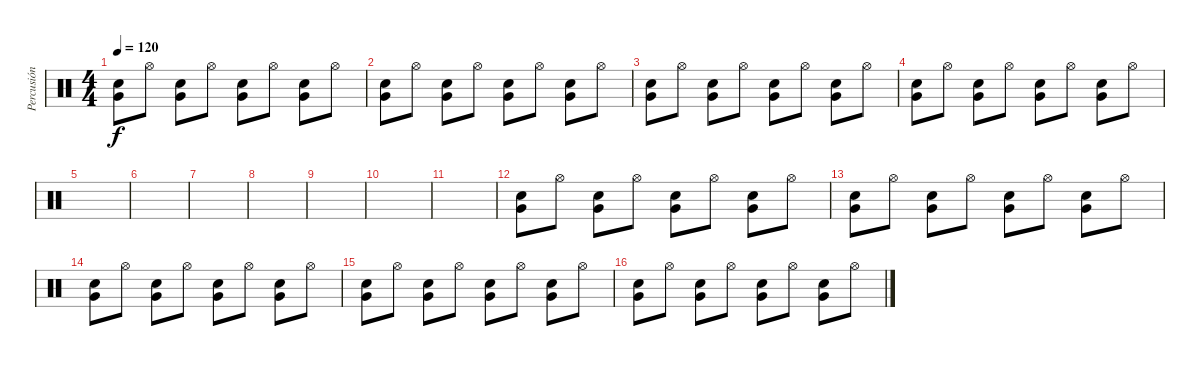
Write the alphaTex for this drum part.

\track ("Percusión" "Percusión") {instrument percussion}
\staff {score}
\articulation defaults
\ts (4 4)
\tempo 120
\clef neutral
\ks c
("Electric Snare (hit)" "Very Low Tom (hit)").8{dy f} "Hi-Hat (open)".8 ("Electric Snare (hit)" "Very Low Tom (hit)").8 "Hi-Hat (open)".8 ("Electric Snare (hit)" "Very Low Tom (hit)").8 "Hi-Hat (open)".8 ("Electric Snare (hit)" "Very Low Tom (hit)").8 "Hi-Hat (open)".8 |
("Electric Snare (hit)" "Very Low Tom (hit)").8 "Hi-Hat (open)".8 ("Electric Snare (hit)" "Very Low Tom (hit)").8 "Hi-Hat (open)".8 ("Electric Snare (hit)" "Very Low Tom (hit)").8 "Hi-Hat (open)".8 ("Electric Snare (hit)" "Very Low Tom (hit)").8 "Hi-Hat (open)".8 |
("Electric Snare (hit)" "Very Low Tom (hit)").8 "Hi-Hat (open)".8 ("Electric Snare (hit)" "Very Low Tom (hit)").8 "Hi-Hat (open)".8 ("Electric Snare (hit)" "Very Low Tom (hit)").8 "Hi-Hat (open)".8 ("Electric Snare (hit)" "Very Low Tom (hit)").8 "Hi-Hat (open)".8 |
("Electric Snare (hit)" "Very Low Tom (hit)").8 "Hi-Hat (open)".8 ("Electric Snare (hit)" "Very Low Tom (hit)").8 "Hi-Hat (open)".8 ("Electric Snare (hit)" "Very Low Tom (hit)").8 "Hi-Hat (open)".8 ("Electric Snare (hit)" "Very Low Tom (hit)").8 "Hi-Hat (open)".8 |
|
|
|
|
|
|
|
("Electric Snare (hit)" "Very Low Tom (hit)").8 "Hi-Hat (open)".8 ("Electric Snare (hit)" "Very Low Tom (hit)").8 "Hi-Hat (open)".8 ("Electric Snare (hit)" "Very Low Tom (hit)").8 "Hi-Hat (open)".8 ("Electric Snare (hit)" "Very Low Tom (hit)").8 "Hi-Hat (open)".8 |
("Electric Snare (hit)" "Very Low Tom (hit)").8 "Hi-Hat (open)".8 ("Electric Snare (hit)" "Very Low Tom (hit)").8 "Hi-Hat (open)".8 ("Electric Snare (hit)" "Very Low Tom (hit)").8 "Hi-Hat (open)".8 ("Electric Snare (hit)" "Very Low Tom (hit)").8 "Hi-Hat (open)".8 |
("Electric Snare (hit)" "Very Low Tom (hit)").8 "Hi-Hat (open)".8 ("Electric Snare (hit)" "Very Low Tom (hit)").8 "Hi-Hat (open)".8 ("Electric Snare (hit)" "Very Low Tom (hit)").8 "Hi-Hat (open)".8 ("Electric Snare (hit)" "Very Low Tom (hit)").8 "Hi-Hat (open)".8 |
("Electric Snare (hit)" "Very Low Tom (hit)").8 "Hi-Hat (open)".8 ("Electric Snare (hit)" "Very Low Tom (hit)").8 "Hi-Hat (open)".8 ("Electric Snare (hit)" "Very Low Tom (hit)").8 "Hi-Hat (open)".8 ("Electric Snare (hit)" "Very Low Tom (hit)").8 "Hi-Hat (open)".8 |
("Electric Snare (hit)" "Very Low Tom (hit)").8 "Hi-Hat (open)".8 ("Electric Snare (hit)" "Very Low Tom (hit)").8 "Hi-Hat (open)".8 ("Electric Snare (hit)" "Very Low Tom (hit)").8 "Hi-Hat (open)".8 ("Electric Snare (hit)" "Very Low Tom (hit)").8 "Hi-Hat (open)".8
